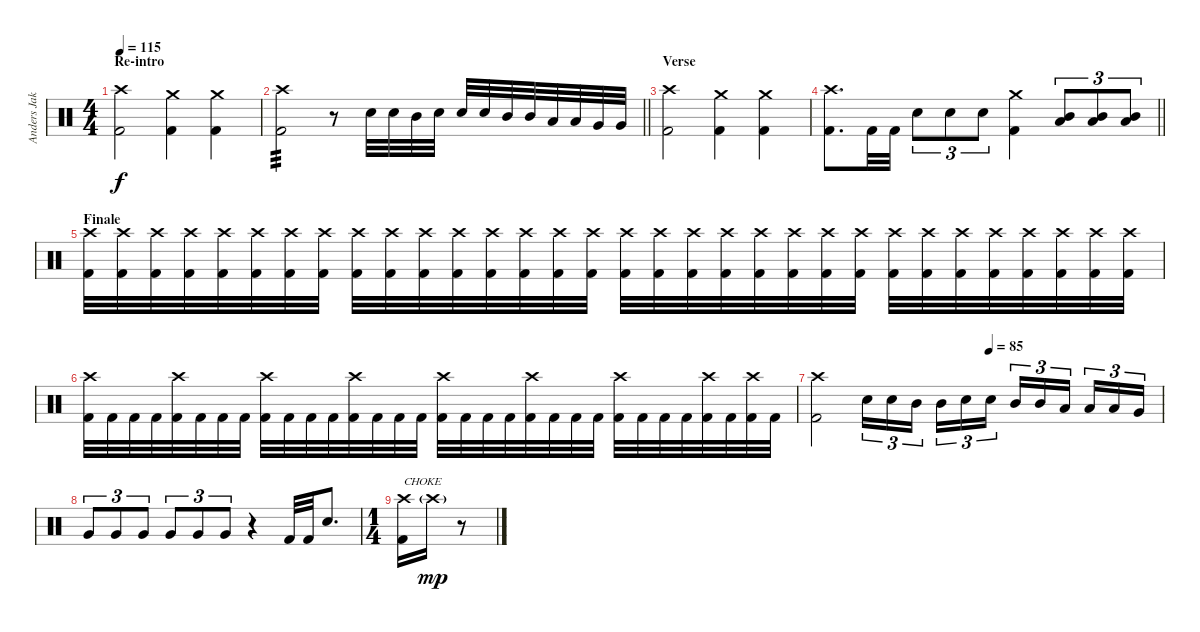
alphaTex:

\track ("Anders Jakobson" "Anders Jak") {instrument percussion}
\staff {score}
\articulation defaults
\ts (4 4)
\section ("" "Re-intro")
\tempo 115
\clef neutral
\ks c
("Crash high (hit)" "Kick (hit) 2").2{dy f} ("Crash medium (hit)" "Kick (hit) 2").4 ("Crash medium (hit)" "Kick (hit) 2").4 |
\barLineRight lightlight
("Crash high (hit)" "Kick (hit) 2").2{tp 3} r.8 "Electric Snare (hit)".32 "Electric Snare (hit)".32 "Mid Tom (hit)".32 "Electric Snare (hit)".32 "Electric Snare (hit)".32 "Electric Snare (hit)".32 "Mid Tom (hit)".32 "Mid Tom (hit)".32 "Low Tom (hit)".32 "Low Tom (hit)".32 "Very Low Tom (hit)".32 "Very Low Tom (hit)".32 |
\section ("" "Verse")
("Crash high (hit)" "Kick (hit) 2").2 ("Crash medium (hit)" "Kick (hit) 2").4 ("Crash medium (hit)" "Kick (hit) 2").4 |
\barLineRight lightlight
("Crash high (hit)" "Kick (hit) 2").8{d} "Kick (hit) 2".32 "Kick (hit) 2".32 "Electric Snare (hit)".8{tu (3 2)} "Electric Snare (hit)".8{tu (3 2)} "Electric Snare (hit)".8{tu (3 2)} ("Crash medium (hit)" "Kick (hit) 2").4 ("Low Tom (hit)" "Mid Tom (hit)").8{tu (3 2)} ("Low Tom (hit)" "Mid Tom (hit)").8{tu (3 2)} ("Low Tom (hit)" "Mid Tom (hit)").8{tu (3 2)} |
\section ("" "Finale")
("Crash high (hit)" "Kick (hit) 2").32 ("Crash high (hit)" "Kick (hit) 2").32 ("Crash high (hit)" "Kick (hit) 2").32 ("Crash high (hit)" "Kick (hit) 2").32 ("Crash high (hit)" "Kick (hit) 2").32 ("Crash high (hit)" "Kick (hit) 2").32 ("Crash high (hit)" "Kick (hit) 2").32 ("Crash high (hit)" "Kick (hit) 2").32 ("Crash high (hit)" "Kick (hit) 2").32 ("Crash high (hit)" "Kick (hit) 2").32 ("Crash high (hit)" "Kick (hit) 2").32 ("Crash high (hit)" "Kick (hit) 2").32 ("Crash high (hit)" "Kick (hit) 2").32 ("Crash high (hit)" "Kick (hit) 2").32 ("Crash high (hit)" "Kick (hit) 2").32 ("Crash high (hit)" "Kick (hit) 2").32 ("Crash high (hit)" "Kick (hit) 2").32 ("Crash high (hit)" "Kick (hit) 2").32 ("Crash high (hit)" "Kick (hit) 2").32 ("Crash high (hit)" "Kick (hit) 2").32 ("Crash high (hit)" "Kick (hit) 2").32 ("Crash high (hit)" "Kick (hit) 2").32 ("Crash high (hit)" "Kick (hit) 2").32 ("Crash high (hit)" "Kick (hit) 2").32 ("Crash high (hit)" "Kick (hit) 2").32 ("Crash high (hit)" "Kick (hit) 2").32 ("Crash high (hit)" "Kick (hit) 2").32 ("Crash high (hit)" "Kick (hit) 2").32 ("Crash high (hit)" "Kick (hit) 2").32 ("Crash high (hit)" "Kick (hit) 2").32 ("Crash high (hit)" "Kick (hit) 2").32 ("Crash high (hit)" "Kick (hit) 2").32 |
("Crash high (hit)" "Kick (hit) 2").32 "Kick (hit) 2".32 "Kick (hit) 2".32 "Kick (hit) 2".32 ("Crash high (hit)" "Kick (hit) 2").32 "Kick (hit) 2".32 "Kick (hit) 2".32 "Kick (hit) 2".32 ("Crash high (hit)" "Kick (hit) 2").32 "Kick (hit) 2".32 "Kick (hit) 2".32 "Kick (hit) 2".32 ("Crash high (hit)" "Kick (hit) 2").32 "Kick (hit) 2".32 "Kick (hit) 2".32 "Kick (hit) 2".32 ("Crash high (hit)" "Kick (hit) 2").32 "Kick (hit) 2".32 "Kick (hit) 2".32 "Kick (hit) 2".32 ("Crash high (hit)" "Kick (hit) 2").32 "Kick (hit) 2".32 "Kick (hit) 2".32 "Kick (hit) 2".32 ("Crash high (hit)" "Kick (hit) 2").32 "Kick (hit) 2".32 "Kick (hit) 2".32 "Kick (hit) 2".32 ("Crash high (hit)" "Kick (hit) 2").32 "Kick (hit) 2".32 ("Crash high (hit)" "Kick (hit) 2").32 "Kick (hit) 2".32 |
\tempo (85 0.5)
("Crash high (hit)" "Kick (hit) 2").2 "Electric Snare (hit)".16{tu (3 2)} "Electric Snare (hit)".16{tu (3 2)} "Mid Tom (hit)".16{tu (3 2) beam splitsecondary} "Mid Tom (hit)".16{tu (3 2)} "Electric Snare (hit)".16{tu (3 2)} "Electric Snare (hit)".16{tu (3 2)} "Mid Tom (hit)".16{tu (3 2)} "Mid Tom (hit)".16{tu (3 2)} "Low Tom (hit)".16{tu (3 2) beam splitsecondary} "Low Tom (hit)".16{tu (3 2)} "Low Tom (hit)".16{tu (3 2)} "Very Low Tom (hit)".16{tu (3 2)} |
"Very Low Tom (hit)".8{tu (3 2)} "Very Low Tom (hit)".8{tu (3 2)} "Very Low Tom (hit)".8{tu (3 2)} "Very Low Tom (hit)".8{tu (3 2)} "Very Low Tom (hit)".8{tu (3 2)} "Very Low Tom (hit)".8{tu (3 2)} r.4 "Kick (hit) 2".32 "Kick (hit) 2".32 "Electric Snare (hit)".8{d} |
\ts (1 4)
("Crash high (hit)" "Kick (hit) 2").16{txt "CHOKE"} "Crash high (hit)"{g}.16{dy mp} r.8
